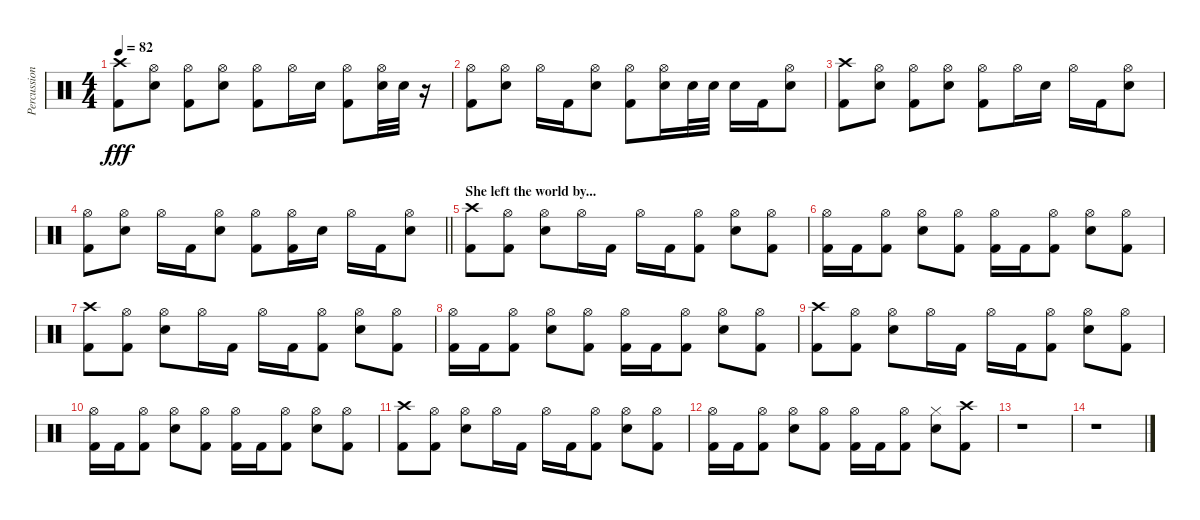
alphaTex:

\track ("Percussion" "Percussion") {instrument percussion}
\staff {score}
\articulation defaults
\ts (4 4)
\tempo 82
\clef neutral
\ks c
("Crash high (hit)" "Kick (hit) 2").8{dy fff} ("Hi-Hat (open)" "Electric Snare (hit)").8 ("Hi-Hat (open)" "Kick (hit) 2").8 ("Hi-Hat (open)" "Electric Snare (hit)").8 ("Hi-Hat (open)" "Kick (hit) 2").8 "Hi-Hat (open)".16 "Electric Snare (hit)".16 ("Hi-Hat (open)" "Kick (hit) 2").8 ("Hi-Hat (open)" "Electric Snare (hit)").32 "Electric Snare (hit)".32 r.16 |
("Hi-Hat (open)" "Kick (hit) 2").8 ("Hi-Hat (open)" "Electric Snare (hit)").8 "Hi-Hat (open)".16 "Kick (hit) 2".16 ("Hi-Hat (open)" "Electric Snare (hit)").8 ("Hi-Hat (open)" "Kick (hit) 2").8 ("Hi-Hat (open)" "Electric Snare (hit)").16 "Electric Snare (hit)".32 "Electric Snare (hit)".32 "Electric Snare (hit)".16 "Kick (hit) 2".16 ("Hi-Hat (open)" "Electric Snare (hit)").8 |
("Crash high (hit)" "Kick (hit) 2").8 ("Hi-Hat (open)" "Electric Snare (hit)").8 ("Hi-Hat (open)" "Kick (hit) 2").8 ("Hi-Hat (open)" "Electric Snare (hit)").8 ("Hi-Hat (open)" "Kick (hit) 2").8 "Hi-Hat (open)".16 "Electric Snare (hit)".16 "Hi-Hat (open)".16 "Kick (hit) 2".16 ("Hi-Hat (open)" "Electric Snare (hit)").8 |
\barLineRight lightlight
("Hi-Hat (open)" "Kick (hit) 2").8 ("Hi-Hat (open)" "Electric Snare (hit)").8 "Hi-Hat (open)".16 "Kick (hit) 2".16 ("Hi-Hat (open)" "Electric Snare (hit)").8 ("Hi-Hat (open)" "Kick (hit) 2").8 ("Hi-Hat (open)" "Kick (hit) 2").16 "Electric Snare (hit)".16 "Hi-Hat (open)".16 "Kick (hit) 2".16 ("Hi-Hat (open)" "Electric Snare (hit)").8 |
\section ("" "She left the world by...")
("Crash high (hit)" "Kick (hit) 2").8 ("Hi-Hat (open)" "Kick (hit) 2").8 ("Hi-Hat (open)" "Electric Snare (hit)").8 "Hi-Hat (open)".16 "Kick (hit) 2".16 "Hi-Hat (open)".16 "Kick (hit) 2".16 ("Hi-Hat (open)" "Kick (hit) 2").8 ("Hi-Hat (open)" "Electric Snare (hit)").8 ("Hi-Hat (open)" "Kick (hit) 2").8 |
("Hi-Hat (open)" "Kick (hit) 2").16 "Kick (hit) 2".16 ("Hi-Hat (open)" "Kick (hit) 2").8 ("Hi-Hat (open)" "Electric Snare (hit)").8 ("Hi-Hat (open)" "Kick (hit) 2").8 ("Hi-Hat (open)" "Kick (hit) 2").16 "Kick (hit) 2".16 ("Hi-Hat (open)" "Kick (hit) 2").8 ("Hi-Hat (open)" "Electric Snare (hit)").8 ("Hi-Hat (open)" "Kick (hit) 2").8 |
("Crash high (hit)" "Kick (hit) 2").8 ("Hi-Hat (open)" "Kick (hit) 2").8 ("Hi-Hat (open)" "Electric Snare (hit)").8 "Hi-Hat (open)".16 "Kick (hit) 2".16 "Hi-Hat (open)".16 "Kick (hit) 2".16 ("Hi-Hat (open)" "Kick (hit) 2").8 ("Hi-Hat (open)" "Electric Snare (hit)").8 ("Hi-Hat (open)" "Kick (hit) 2").8 |
("Hi-Hat (open)" "Kick (hit) 2").16 "Kick (hit) 2".16 ("Hi-Hat (open)" "Kick (hit) 2").8 ("Hi-Hat (open)" "Electric Snare (hit)").8 ("Hi-Hat (open)" "Kick (hit) 2").8 ("Hi-Hat (open)" "Kick (hit) 2").16 "Kick (hit) 2".16 ("Hi-Hat (open)" "Kick (hit) 2").8 ("Hi-Hat (open)" "Electric Snare (hit)").8 ("Hi-Hat (open)" "Kick (hit) 2").8 |
("Crash high (hit)" "Kick (hit) 2").8 ("Hi-Hat (open)" "Kick (hit) 2").8 ("Hi-Hat (open)" "Electric Snare (hit)").8 "Hi-Hat (open)".16 "Kick (hit) 2".16 "Hi-Hat (open)".16 "Kick (hit) 2".16 ("Hi-Hat (open)" "Kick (hit) 2").8 ("Hi-Hat (open)" "Electric Snare (hit)").8 ("Hi-Hat (open)" "Kick (hit) 2").8 |
("Hi-Hat (open)" "Kick (hit) 2").16 "Kick (hit) 2".16 ("Hi-Hat (open)" "Kick (hit) 2").8 ("Hi-Hat (open)" "Electric Snare (hit)").8 ("Hi-Hat (open)" "Kick (hit) 2").8 ("Hi-Hat (open)" "Kick (hit) 2").16 "Kick (hit) 2".16 ("Hi-Hat (open)" "Kick (hit) 2").8 ("Hi-Hat (open)" "Electric Snare (hit)").8 ("Hi-Hat (open)" "Kick (hit) 2").8 |
("Crash high (hit)" "Kick (hit) 2").8 ("Hi-Hat (open)" "Kick (hit) 2").8 ("Hi-Hat (open)" "Electric Snare (hit)").8 "Hi-Hat (open)".16 "Kick (hit) 2".16 "Hi-Hat (open)".16 "Kick (hit) 2".16 ("Hi-Hat (open)" "Kick (hit) 2").8 ("Hi-Hat (open)" "Electric Snare (hit)").8 ("Hi-Hat (open)" "Kick (hit) 2").8 |
("Hi-Hat (open)" "Kick (hit) 2").16 "Kick (hit) 2".16 ("Hi-Hat (open)" "Kick (hit) 2").8 ("Hi-Hat (open)" "Electric Snare (hit)").8 ("Hi-Hat (open)" "Kick (hit) 2").8 ("Hi-Hat (open)" "Kick (hit) 2").16 "Kick (hit) 2".16 ("Hi-Hat (open)" "Kick (hit) 2").8 ("Hi-Hat (closed)" "Electric Snare (hit)").8 ("Crash high (hit)" "Kick (hit) 2").8 |
r.1 |
r.1
